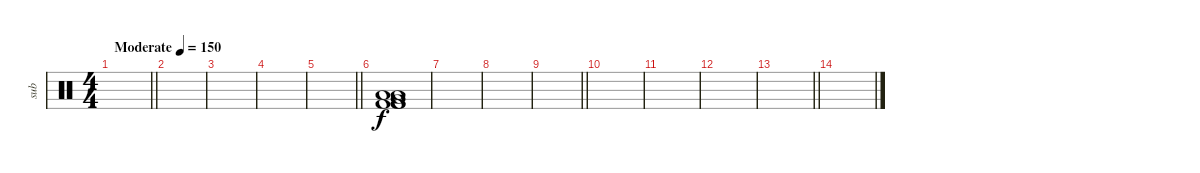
\track ("sub" "sub") {instrument percussion}
\staff {score}
\articulation defaults
\ts (4 4)
\tempo (150 "Moderate")
\clef neutral
\barLineRight lightlight
\ks c
|
\section ("" "")
|
|
|
\barLineRight lightlight
|
\section ("" "")
("Low Floor Tom (hit)" "Low Floor Tom (hit)" "Very Low Tom (hit)" "Kick (hit) 2" "Kick (hit) 2" "Kick (hit) 2").1 |
|
|
\barLineRight lightlight
|
|
|
|
\barLineRight lightlight
|
\section ("" "")
